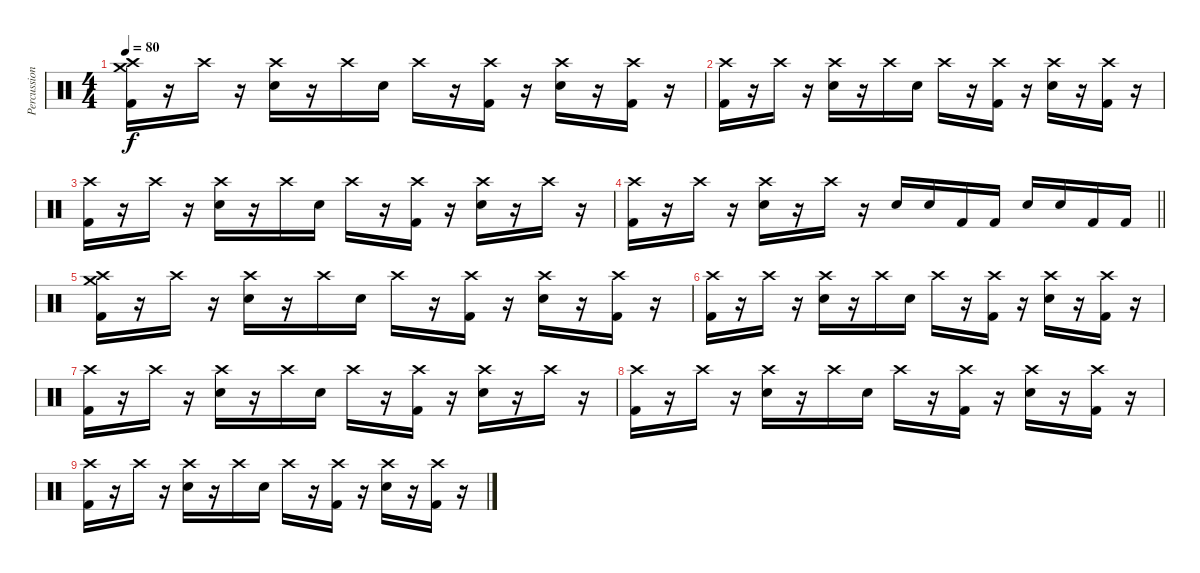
\track ("Percussion" "Percussion") {instrument percussion}
\staff {score}
\articulation defaults
\ts (4 4)
\tempo 80
\clef neutral
\ks c
("Crash medium (hit)" "Crash high (hit)" "Kick (hit) 2").16{dy f} r.16 "Crash high (hit)".16 r.16 ("Crash high (hit)" "Electric Snare (hit)").16 r.16 "Crash high (hit)".16 "Electric Snare (hit)".16 "Crash high (hit)".16 r.16 ("Crash high (hit)" "Kick (hit) 2").16 r.16 ("Crash high (hit)" "Electric Snare (hit)").16 r.16 ("Crash high (hit)" "Kick (hit) 2").16 r.16 |
("Crash high (hit)" "Kick (hit) 2").16 r.16 "Crash high (hit)".16 r.16 ("Crash high (hit)" "Electric Snare (hit)").16 r.16 "Crash high (hit)".16 "Electric Snare (hit)".16 "Crash high (hit)".16 r.16 ("Crash high (hit)" "Kick (hit) 2").16 r.16 ("Crash high (hit)" "Electric Snare (hit)").16 r.16 ("Crash high (hit)" "Kick (hit) 2").16 r.16 |
("Crash high (hit)" "Kick (hit) 2").16 r.16 "Crash high (hit)".16 r.16 ("Crash high (hit)" "Electric Snare (hit)").16 r.16 "Crash high (hit)".16 "Electric Snare (hit)".16 "Crash high (hit)".16 r.16 ("Crash high (hit)" "Kick (hit) 2").16 r.16 ("Crash high (hit)" "Electric Snare (hit)").16 r.16 "Crash high (hit)".16 r.16 |
\barLineRight lightlight
("Crash high (hit)" "Kick (hit) 2").16 r.16 "Crash high (hit)".16 r.16 ("Crash high (hit)" "Electric Snare (hit)").16 r.16 "Crash high (hit)".16 r.16 "Electric Snare (hit)".16 "Electric Snare (hit)".16 "Kick (hit) 2".16 "Kick (hit) 2".16 "Electric Snare (hit)".16 "Electric Snare (hit)".16 "Kick (hit) 2".16 "Kick (hit) 2".16 |
("Crash medium (hit)" "Crash high (hit)" "Kick (hit) 2").16 r.16 "Crash high (hit)".16 r.16 ("Crash high (hit)" "Electric Snare (hit)").16 r.16 "Crash high (hit)".16 "Electric Snare (hit)".16 "Crash high (hit)".16 r.16 ("Crash high (hit)" "Kick (hit) 2").16 r.16 ("Crash high (hit)" "Electric Snare (hit)").16 r.16 ("Crash high (hit)" "Kick (hit) 2").16 r.16 |
("Crash high (hit)" "Kick (hit) 2").16 r.16 "Crash high (hit)".16 r.16 ("Crash high (hit)" "Electric Snare (hit)").16 r.16 "Crash high (hit)".16 "Electric Snare (hit)".16 "Crash high (hit)".16 r.16 ("Crash high (hit)" "Kick (hit) 2").16 r.16 ("Crash high (hit)" "Electric Snare (hit)").16 r.16 ("Crash high (hit)" "Kick (hit) 2").16 r.16 |
("Crash high (hit)" "Kick (hit) 2").16 r.16 "Crash high (hit)".16 r.16 ("Crash high (hit)" "Electric Snare (hit)").16 r.16 "Crash high (hit)".16 "Electric Snare (hit)".16 "Crash high (hit)".16 r.16 ("Crash high (hit)" "Kick (hit) 2").16 r.16 ("Crash high (hit)" "Electric Snare (hit)").16 r.16 "Crash high (hit)".16 r.16 |
("Crash high (hit)" "Kick (hit) 2").16 r.16 "Crash high (hit)".16 r.16 ("Crash high (hit)" "Electric Snare (hit)").16 r.16 "Crash high (hit)".16 "Electric Snare (hit)".16 "Crash high (hit)".16 r.16 ("Crash high (hit)" "Kick (hit) 2").16 r.16 ("Crash high (hit)" "Electric Snare (hit)").16 r.16 ("Crash high (hit)" "Kick (hit) 2").16 r.16 |
("Crash high (hit)" "Kick (hit) 2").16 r.16 "Crash high (hit)".16 r.16 ("Crash high (hit)" "Electric Snare (hit)").16 r.16 "Crash high (hit)".16 "Electric Snare (hit)".16 "Crash high (hit)".16 r.16 ("Crash high (hit)" "Kick (hit) 2").16 r.16 ("Crash high (hit)" "Electric Snare (hit)").16 r.16 ("Crash high (hit)" "Kick (hit) 2").16 r.16
